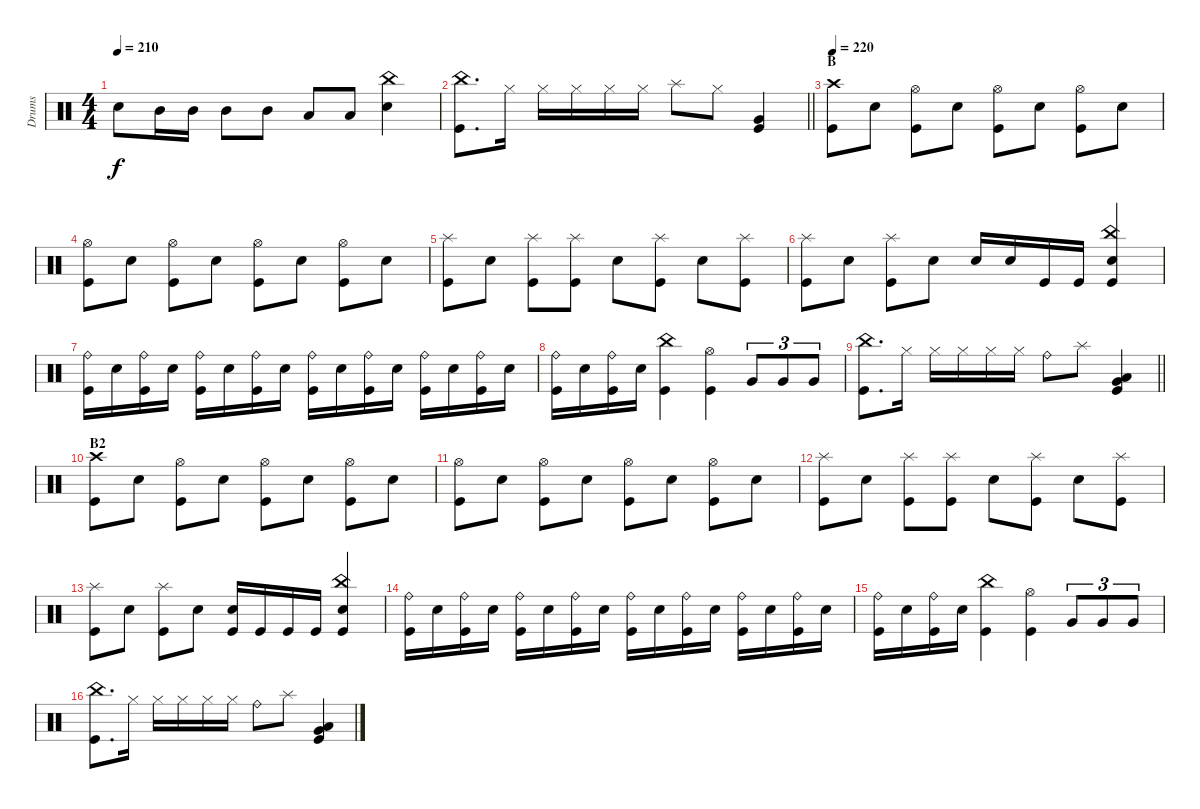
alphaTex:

\track ("Drums" "Drums") {instrument percussion}
\staff {score}
\articulation defaults
\ts (4 4)
\tempo 210
\clef neutral
\ks c "Electric Snare (hit)".8{dy f} "Mid Tom (hit)".16 "Mid Tom (hit)".16 "Mid Tom (hit)".8 "Mid Tom (hit)".8 "Low Tom (hit)".8 "Low Tom (hit)".8
("China (hit)" "Electric Snare (hit)").4 |
\barLineRight lightlight
("China (hit)" "Kick (hit)").8{d} "Hi-Hat (closed)".16 "Hi-Hat (closed)".16 "Hi-Hat (closed)".16 "Hi-Hat (closed)".16 "Hi-Hat (closed)".16 "Splash (hit)".8 "Hi-Hat (closed)".8 ("Very Low Tom (hit)" "Kick (hit)").4 |
\section ("" "B")
\tempo 220
("Crash high (hit)" "Kick (hit)").8 "Electric Snare (hit)".8 ("Hi-Hat (open)" "Kick (hit)").8 "Electric Snare (hit)".8 ("Hi-Hat (open)" "Kick (hit)").8 "Electric Snare (hit)".8 ("Hi-Hat (open)" "Kick (hit)").8 "Electric Snare (hit)".8 |
("Hi-Hat (open)" "Kick (hit)").8 "Electric Snare (hit)".8 ("Hi-Hat (open)" "Kick (hit)").8 "Electric Snare (hit)".8 ("Hi-Hat (open)" "Kick (hit)").8 "Electric Snare (hit)".8 ("Hi-Hat (open)" "Kick (hit)").8 "Electric Snare (hit)".8 |
("Splash (hit)" "Kick (hit)").8 "Electric Snare (hit)".8 ("Splash (hit)" "Kick (hit)").8 ("Splash (hit)" "Kick (hit)").8 "Electric Snare (hit)".8 ("Splash (hit)" "Kick (hit)").8 "Electric Snare (hit)".8 ("Splash (hit)" "Kick (hit)").8 |
("Splash (hit)" "Kick (hit)").8 "Electric Snare (hit)".8 ("Splash (hit)" "Kick (hit)").8 "Electric Snare (hit)".8 "Electric Snare (hit)".16 "Electric Snare (hit)".16 "Kick (hit)".16 "Kick (hit)".16 ("China (hit)" "Electric Snare (hit)" "Kick (hit)").4 |
("Ride (bell)" "Kick (hit)").16 "Electric Snare (hit)".16 ("Ride (bell)" "Kick (hit)").16 "Electric Snare (hit)".16 ("Ride (bell)" "Kick (hit)").16 "Electric Snare (hit)".16 ("Ride (bell)" "Kick (hit)").16 "Electric Snare (hit)".16 ("Ride (bell)" "Kick (hit)").16 "Electric Snare (hit)".16 ("Ride (bell)" "Kick (hit)").16 "Electric Snare (hit)".16 ("Ride (bell)" "Kick (hit)").16 "Electric Snare (hit)".16 ("Ride (bell)" "Kick (hit)").16 "Electric Snare (hit)".16 |
("Ride (bell)" "Kick (hit)").16 "Electric Snare (hit)".16 ("Ride (bell)" "Kick (hit)").16 "Electric Snare (hit)".16 ("China (hit)" "Kick (hit)").4 ("Hi-Hat (open)" "Kick (hit)").4 "Very Low Tom (hit)".8{tu (3 2)} "Very Low Tom (hit)".8{tu (3 2)} "Very Low Tom (hit)".8{tu (3 2)} |
\barLineRight lightlight
("China (hit)" "Kick (hit)").8{d} "Hi-Hat (closed)".16 "Hi-Hat (closed)".16 "Hi-Hat (closed)".16 "Hi-Hat (closed)".16 "Hi-Hat (closed)".16 "Ride (bell)".8 "Splash (hit)".8 ("Low Tom (hit)" "Very Low Tom (hit)" "Kick (hit)").4 |
\section ("" "B2")
("Crash high (hit)" "Kick (hit)").8 "Electric Snare (hit)".8 ("Hi-Hat (open)" "Kick (hit)").8 "Electric Snare (hit)".8 ("Hi-Hat (open)" "Kick (hit)").8 "Electric Snare (hit)".8 ("Hi-Hat (open)" "Kick (hit)").8 "Electric Snare (hit)".8 |
("Hi-Hat (open)" "Kick (hit)").8 "Electric Snare (hit)".8 ("Hi-Hat (open)" "Kick (hit)").8 "Electric Snare (hit)".8 ("Hi-Hat (open)" "Kick (hit)").8 "Electric Snare (hit)".8 ("Hi-Hat (open)" "Kick (hit)").8 "Electric Snare (hit)".8 |
("Splash (hit)" "Kick (hit)").8 "Electric Snare (hit)".8 ("Splash (hit)" "Kick (hit)").8 ("Splash (hit)" "Kick (hit)").8 "Electric Snare (hit)".8 ("Splash (hit)" "Kick (hit)").8 "Electric Snare (hit)".8 ("Splash (hit)" "Kick (hit)").8 |
("Splash (hit)" "Kick (hit)").8 "Electric Snare (hit)".8 ("Splash (hit)" "Kick (hit)").8 "Electric Snare (hit)".8 ("Electric Snare (hit)" "Kick (hit)").16 "Kick (hit)".16 "Kick (hit)".16 "Kick (hit)".16 ("China (hit)" "Electric Snare (hit)" "Kick (hit)").4 |
("Ride (bell)" "Kick (hit)").16 "Electric Snare (hit)".16 ("Ride (bell)" "Kick (hit)").16 "Electric Snare (hit)".16 ("Ride (bell)" "Kick (hit)").16 "Electric Snare (hit)".16 ("Ride (bell)" "Kick (hit)").16 "Electric Snare (hit)".16 ("Ride (bell)" "Kick (hit)").16 "Electric Snare (hit)".16 ("Ride (bell)" "Kick (hit)").16 "Electric Snare (hit)".16 ("Ride (bell)" "Kick (hit)").16 "Electric Snare (hit)".16 ("Ride (bell)" "Kick (hit)").16 "Electric Snare (hit)".16 |
("Ride (bell)" "Kick (hit)").16 "Electric Snare (hit)".16 ("Ride (bell)" "Kick (hit)").16 "Electric Snare (hit)".16 ("China (hit)" "Kick (hit)").4 ("Hi-Hat (open)" "Kick (hit)").4 "Very Low Tom (hit)".8{tu (3 2)} "Very Low Tom (hit)".8{tu (3 2)} "Very Low Tom (hit)".8{tu (3 2)} |
("China (hit)" "Kick (hit)").8{d} "Hi-Hat (closed)".16 "Hi-Hat (closed)".16 "Hi-Hat (closed)".16 "Hi-Hat (closed)".16 "Hi-Hat (closed)".16 "Ride (bell)".8 "Splash (hit)".8 ("Low Tom (hit)" "Very Low Tom (hit)" "Kick (hit)").4
